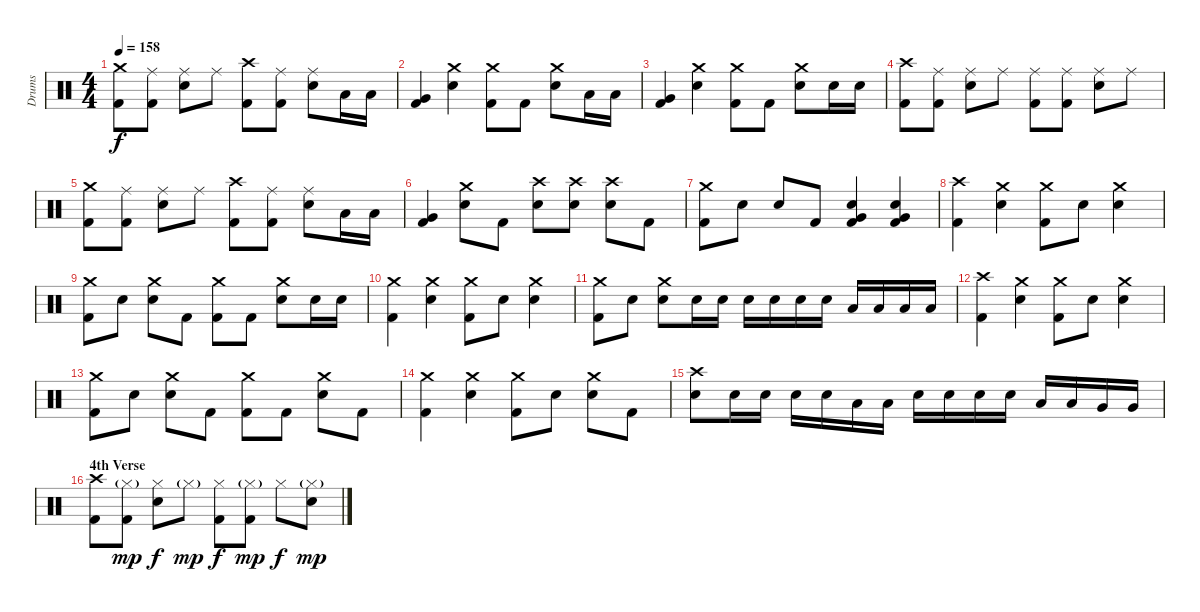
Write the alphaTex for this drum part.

\track ("Drums" "Drums") {instrument percussion}
\staff {score}
\articulation defaults
\ts (4 4)
\tempo 158
\clef neutral
\ks c
("Crash medium (hit)" "Kick (hit) 2").8{dy f} ("Ride (middle)" "Kick (hit) 2").8 ("Ride (middle)" "Snare (hit) 2").8 "Ride (middle)".8 ("Crash high (hit)" "Kick (hit) 2").8 ("Ride (middle)" "Kick (hit) 2").8 ("Ride (middle)" "Snare (hit) 2").8 "Low Tom (hit)".16 "Low Tom (hit)".16 |
("Very Low Tom (hit)" "Kick (hit) 2").4 ("Crash medium (hit)" "Snare (hit) 2").4 ("Crash medium (hit)" "Kick (hit) 2").8 "Kick (hit) 2".8 ("Crash medium (hit)" "Snare (hit) 2").8 "Low Tom (hit)".16 "Low Tom (hit)".16 |
("Very Low Tom (hit)" "Kick (hit) 2").4 ("Crash medium (hit)" "Snare (hit) 2").4 ("Crash medium (hit)" "Kick (hit) 2").8 "Kick (hit) 2".8 ("Crash medium (hit)" "Snare (hit) 2").8 "Snare (hit) 2".16 "Snare (hit) 2".16 |
("Crash high (hit)" "Kick (hit) 2").8 ("Ride (middle)" "Kick (hit) 2").8 ("Ride (middle)" "Snare (hit) 2").8 "Ride (middle)".8 ("Ride (middle)" "Kick (hit) 2").8 ("Ride (middle)" "Kick (hit) 2").8 ("Ride (middle)" "Snare (hit) 2").8 "Ride (middle)".8 |
("Crash medium (hit)" "Kick (hit) 2").8 ("Ride (middle)" "Kick (hit) 2").8 ("Ride (middle)" "Snare (hit) 2").8 "Ride (middle)".8 ("Crash high (hit)" "Kick (hit) 2").8 ("Ride (middle)" "Kick (hit) 2").8 ("Ride (middle)" "Snare (hit) 2").8 "Low Tom (hit)".16 "Low Tom (hit)".16 |
("Very Low Tom (hit)" "Kick (hit) 2").4 ("Crash medium (hit)" "Snare (hit) 2").8 "Kick (hit) 2".8 ("Crash high (hit)" "Snare (hit) 2").8 ("Crash high (hit)" "Snare (hit) 2").8 ("Crash high (hit)" "Snare (hit) 2").8 "Kick (hit) 2".8 |
("Crash medium (hit)" "Kick (hit) 2").8 "Snare (hit) 2".8 "Snare (hit) 2".8 "Kick (hit) 2".8 ("Snare (hit) 2" "Very Low Tom (hit)" "Kick (hit) 2").4 ("Snare (hit) 2" "Very Low Tom (hit)" "Kick (hit) 2").4 |
("Crash high (hit)" "Kick (hit) 2").4 ("Crash medium (hit)" "Snare (hit) 2").4 ("Crash medium (hit)" "Kick (hit) 2").8 "Snare (hit) 2".8 ("Crash medium (hit)" "Snare (hit) 2").4 |
("Crash medium (hit)" "Kick (hit) 2").8 "Snare (hit) 2".8 ("Crash medium (hit)" "Snare (hit) 2").8 "Kick (hit) 2".8 ("Crash medium (hit)" "Kick (hit) 2").8 "Kick (hit) 2".8 ("Crash medium (hit)" "Snare (hit) 2").8 "Snare (hit) 2".16 "Snare (hit) 2".16 |
("Crash medium (hit)" "Kick (hit) 2").4 ("Crash medium (hit)" "Snare (hit) 2").4 ("Crash medium (hit)" "Kick (hit) 2").8 "Snare (hit) 2".8 ("Crash medium (hit)" "Snare (hit) 2").4 |
("Crash medium (hit)" "Kick (hit) 2").8 "Snare (hit) 2".8 ("Crash medium (hit)" "Snare (hit) 2").8 "Snare (hit) 2".16 "Snare (hit) 2".16 "Snare (hit) 2".16 "Snare (hit) 2".16 "Snare (hit) 2".16 "Snare (hit) 2".16 "Low Tom (hit)".16 "Low Tom (hit)".16 "Low Tom (hit)".16 "Low Tom (hit)".16 |
("Crash high (hit)" "Kick (hit) 2").4 ("Crash medium (hit)" "Snare (hit) 2").4 ("Crash medium (hit)" "Kick (hit) 2").8 "Snare (hit) 2".8 ("Crash medium (hit)" "Snare (hit) 2").4 |
("Crash medium (hit)" "Kick (hit) 2").8 "Snare (hit) 2".8 ("Crash medium (hit)" "Snare (hit) 2").8 "Kick (hit) 2".8 ("Crash medium (hit)" "Kick (hit) 2").8 "Kick (hit) 2".8 ("Crash medium (hit)" "Snare (hit) 2").8 "Kick (hit) 2".8 |
("Crash medium (hit)" "Kick (hit) 2").4 ("Crash medium (hit)" "Snare (hit) 2").4 ("Crash medium (hit)" "Kick (hit) 2").8 "Snare (hit) 2".8 ("Crash medium (hit)" "Snare (hit) 2").8 "Kick (hit) 2".8 |
("Crash high (hit)" "Snare (hit) 2").8 "Snare (hit) 2".16 "Snare (hit) 2".16 "Snare (hit) 2".16 "Snare (hit) 2".16 "Low Tom (hit)".16 "Low Tom (hit)".16 "Snare (hit) 2".16 "Snare (hit) 2".16 "Snare (hit) 2".16 "Snare (hit) 2".16 "Low Tom (hit)".16 "Low Tom (hit)".16 "Very Low Tom (hit)".16 "Very Low Tom (hit)".16 |
\section ("" "4th Verse")
("Crash high (hit)" "Kick (hit) 2").8 ("Hi-Hat (closed)"{g} "Kick (hit) 2").8{dy mp} ("Hi-Hat (closed)" "Snare (hit) 2").8{dy f} "Hi-Hat (closed)"{g}.8{dy mp} ("Hi-Hat (closed)" "Kick (hit) 2").8{dy f} ("Hi-Hat (closed)"{g} "Kick (hit) 2").8{dy mp} "Hi-Hat (closed)".8{dy f} ("Hi-Hat (closed)"{g} "Snare (hit) 2").8{dy mp}
